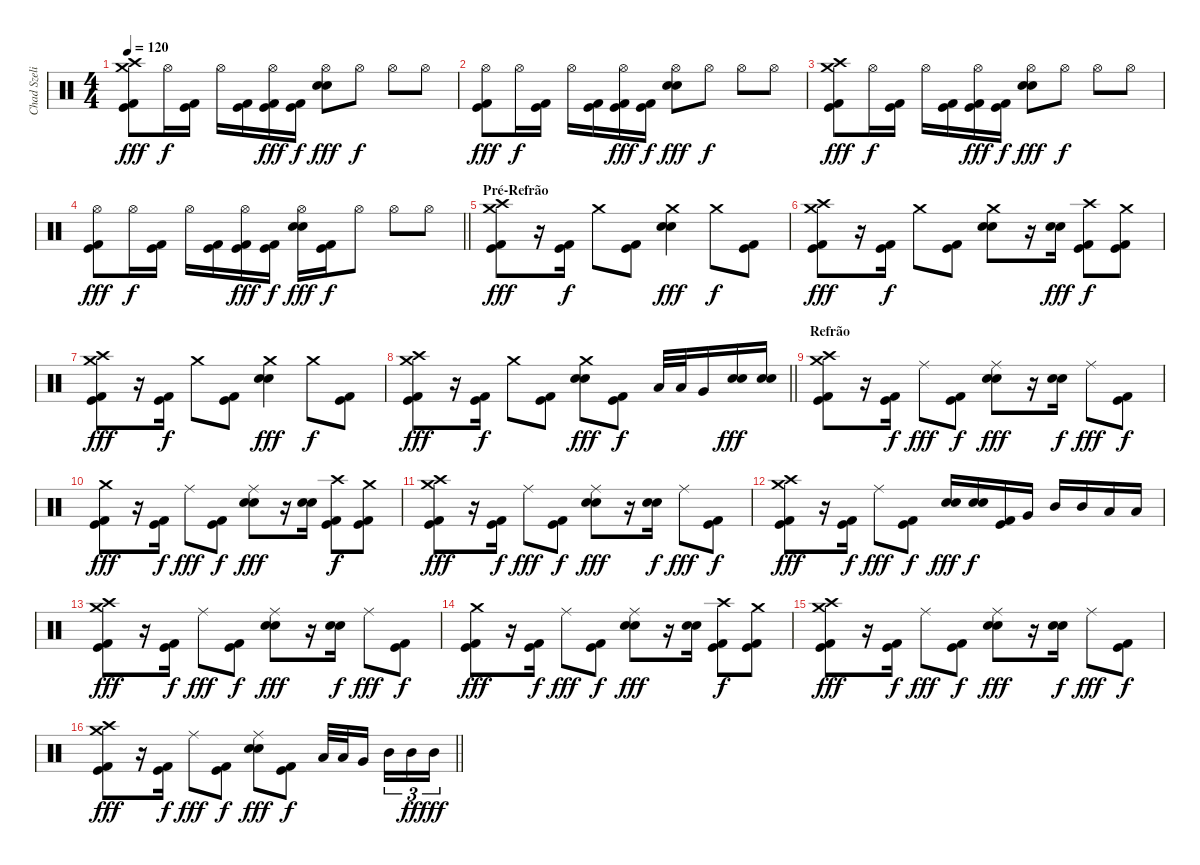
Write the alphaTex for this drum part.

\track ("Chad Szeliga" "Chad Szeli") {instrument percussion}
\staff {score}
\articulation defaults
\ts (4 4)
\tempo 120
\clef neutral
\ks c
("Crash high (hit)" "Kick (hit) 2" "Kick (hit)" "Crash medium (hit)").8{dy fff} "Hi-Hat (open)".16{dy f} ("Kick (hit) 2" "Kick (hit)").16 "Hi-Hat (open)".16 ("Kick (hit) 2" "Kick (hit)").16 ("Kick (hit) 2" "Kick (hit)" "Hi-Hat (open)").16{dy fff} ("Kick (hit) 2" "Kick (hit)").16{dy f} ("Snare (hit) 2" "Snare (hit) 2" "Hi-Hat (open)").8{dy fff} "Hi-Hat (open)".8{dy f} "Hi-Hat (open)".8 "Hi-Hat (open)".8 |
("Kick (hit) 2" "Kick (hit)" "Hi-Hat (open)").8{dy fff} "Hi-Hat (open)".16{dy f} ("Kick (hit) 2" "Kick (hit)").16 "Hi-Hat (open)".16 ("Kick (hit) 2" "Kick (hit)").16 ("Kick (hit) 2" "Kick (hit)" "Hi-Hat (open)").16{dy fff} ("Kick (hit) 2" "Kick (hit)").16{dy f} ("Snare (hit) 2" "Snare (hit) 2" "Hi-Hat (open)").8{dy fff} "Hi-Hat (open)".8{dy f} "Hi-Hat (open)".8 "Hi-Hat (open)".8 |
("Crash high (hit)" "Kick (hit) 2" "Kick (hit)" "Crash medium (hit)").8{dy fff} "Hi-Hat (open)".16{dy f} ("Kick (hit) 2" "Kick (hit)").16 "Hi-Hat (open)".16 ("Kick (hit) 2" "Kick (hit)").16 ("Kick (hit) 2" "Kick (hit)" "Hi-Hat (open)").16{dy fff} ("Kick (hit) 2" "Kick (hit)").16{dy f} ("Snare (hit) 2" "Snare (hit) 2" "Hi-Hat (open)").8{dy fff} "Hi-Hat (open)".8{dy f} "Hi-Hat (open)".8 "Hi-Hat (open)".8 |
\barLineRight lightlight
("Kick (hit) 2" "Kick (hit)" "Hi-Hat (open)").8{dy fff} "Hi-Hat (open)".16{dy f} ("Kick (hit) 2" "Kick (hit)").16 "Hi-Hat (open)".16 ("Kick (hit) 2" "Kick (hit)").16 ("Kick (hit) 2" "Kick (hit)" "Hi-Hat (open)").16{dy fff} ("Kick (hit) 2" "Kick (hit)").16{dy f} ("Snare (hit) 2" "Snare (hit) 2" "Hi-Hat (open)").16{dy fff} ("Kick (hit) 2" "Kick (hit)").16{dy f} "Hi-Hat (open)".8 "Hi-Hat (open)".8 "Hi-Hat (open)".8 |
\section ("" "Pré-Refrão")
("Crash high (hit)" "Kick (hit) 2" "Kick (hit)" "Crash medium (hit)").8{dy fff} r.16 ("Kick (hit) 2" "Kick (hit)").16{dy f beam Down} "Crash medium (hit)".8 ("Kick (hit) 2" "Kick (hit)").8 ("Crash medium (hit)" "Snare (hit) 2" "Snare (hit) 2").4{dy fff} "Crash medium (hit)".8{dy f} ("Kick (hit) 2" "Kick (hit)").8 |
("Crash high (hit)" "Kick (hit) 2" "Kick (hit)" "Crash medium (hit)").8{dy fff} r.16 ("Kick (hit) 2" "Kick (hit)").16{dy f beam Down} "Crash medium (hit)".8 ("Kick (hit) 2" "Kick (hit)").8 ("Crash medium (hit)" "Snare (hit) 2" "Snare (hit) 2").8 r.16 ("Snare (hit) 2" "Snare (hit) 2").16{dy fff} ("Crash high (hit)" "Kick (hit) 2" "Kick (hit)").8{dy f} ("Crash medium (hit)" "Kick (hit) 2" "Kick (hit)").8 |
("Crash high (hit)" "Kick (hit) 2" "Kick (hit)" "Crash medium (hit)").8{dy fff} r.16 ("Kick (hit) 2" "Kick (hit)").16{dy f beam Down} "Crash medium (hit)".8 ("Kick (hit) 2" "Kick (hit)").8 ("Crash medium (hit)" "Snare (hit) 2" "Snare (hit) 2").4{dy fff} "Crash medium (hit)".8{dy f} ("Kick (hit) 2" "Kick (hit)").8 |
\barLineRight lightlight
("Crash high (hit)" "Kick (hit) 2" "Kick (hit)" "Crash medium (hit)").8{dy fff} r.16 ("Kick (hit) 2" "Kick (hit)").16{dy f beam Down} "Crash medium (hit)".8 ("Kick (hit) 2" "Kick (hit)").8 ("Crash medium (hit)" "Snare (hit) 2" "Snare (hit) 2").8{dy fff} ("Kick (hit) 2" "Kick (hit)").8{dy f} "Low Tom (hit)".32 "Low Tom (hit)".32 "Very Low Tom (hit)".16 ("Snare (hit) 2" "Snare (hit) 2").16{dy fff} ("Snare (hit) 2" "Snare (hit) 2").16 |
\section ("" "Refrão")
("Crash high (hit)" "Kick (hit) 2" "Kick (hit)" "Crash medium (hit)").8 r.16 ("Kick (hit) 2" "Kick (hit)").16{dy f beam Down} "Ride (middle)".8{dy fff} ("Kick (hit) 2" "Kick (hit)").8{dy f} ("Ride (middle)" "Snare (hit) 2" "Snare (hit) 2").8{dy fff} r.16 ("Snare (hit) 2" "Snare (hit) 2").16{dy f} "Ride (middle)".8{dy fff} ("Kick (hit) 2" "Kick (hit)").8{dy f} |
("Crash medium (hit)" "Kick (hit) 2" "Kick (hit)").8{dy fff} r.16 ("Kick (hit) 2" "Kick (hit)").16{dy f beam Down} "Ride (middle)".8{dy fff} ("Kick (hit) 2" "Kick (hit)").8{dy f} ("Ride (middle)" "Snare (hit) 2" "Snare (hit) 2").8{dy fff} r.16 ("Snare (hit) 2" "Snare (hit) 2").16 ("Crash high (hit)" "Kick (hit) 2" "Kick (hit)").8{dy f} ("Crash medium (hit)" "Kick (hit) 2" "Kick (hit)").8 |
("Crash high (hit)" "Kick (hit) 2" "Kick (hit)" "Crash medium (hit)").8{dy fff} r.16 ("Kick (hit) 2" "Kick (hit)").16{dy f beam Down} "Ride (middle)".8{dy fff} ("Kick (hit) 2" "Kick (hit)").8{dy f} ("Ride (middle)" "Snare (hit) 2" "Snare (hit) 2").8{dy fff} r.16 ("Snare (hit) 2" "Snare (hit) 2").16{dy f} "Ride (middle)".8{dy fff} ("Kick (hit) 2" "Kick (hit)").8{dy f} |
("Crash high (hit)" "Kick (hit) 2" "Kick (hit)" "Crash medium (hit)").8{dy fff} r.16 ("Kick (hit) 2" "Kick (hit)").16{dy f beam Down} "Ride (middle)".8{dy fff} ("Kick (hit) 2" "Kick (hit)").8{dy f} ("Snare (hit) 2" "Snare (hit) 2").16{dy fff} ("Snare (hit) 2" "Snare (hit) 2").16{dy f} ("Kick (hit) 2" "Kick (hit)").16 "Very Low Tom (hit)".16 "Mid Tom (hit)".16 "Mid Tom (hit)".16 "Low Tom (hit)".16 "Low Tom (hit)".16 |
("Crash high (hit)" "Kick (hit) 2" "Kick (hit)" "Crash medium (hit)").8{dy fff} r.16 ("Kick (hit) 2" "Kick (hit)").16{dy f beam Down} "Ride (middle)".8{dy fff} ("Kick (hit) 2" "Kick (hit)").8{dy f} ("Ride (middle)" "Snare (hit) 2" "Snare (hit) 2").8{dy fff} r.16 ("Snare (hit) 2" "Snare (hit) 2").16{dy f} "Ride (middle)".8{dy fff} ("Kick (hit) 2" "Kick (hit)").8{dy f} |
("Crash medium (hit)" "Kick (hit) 2" "Kick (hit)").8{dy fff} r.16 ("Kick (hit) 2" "Kick (hit)").16{dy f beam Down} "Ride (middle)".8{dy fff} ("Kick (hit) 2" "Kick (hit)").8{dy f} ("Ride (middle)" "Snare (hit) 2" "Snare (hit) 2").8{dy fff} r.16 ("Snare (hit) 2" "Snare (hit) 2").16 ("Crash high (hit)" "Kick (hit) 2" "Kick (hit)").8{dy f} ("Crash medium (hit)" "Kick (hit) 2" "Kick (hit)").8 |
("Crash high (hit)" "Kick (hit) 2" "Kick (hit)" "Crash medium (hit)").8{dy fff} r.16 ("Kick (hit) 2" "Kick (hit)").16{dy f beam Down} "Ride (middle)".8{dy fff} ("Kick (hit) 2" "Kick (hit)").8{dy f} ("Ride (middle)" "Snare (hit) 2" "Snare (hit) 2").8{dy fff} r.16 ("Snare (hit) 2" "Snare (hit) 2").16{dy f} "Ride (middle)".8{dy fff} ("Kick (hit) 2" "Kick (hit)").8{dy f} |
\barLineRight lightlight
("Crash high (hit)" "Kick (hit) 2" "Kick (hit)" "Crash medium (hit)").8{dy fff} r.16 ("Kick (hit) 2" "Kick (hit)").16{dy f beam Down} "Ride (middle)".8{dy fff} ("Kick (hit) 2" "Kick (hit)").8{dy f} ("Ride (middle)" "Snare (hit) 2" "Snare (hit) 2").8{dy fff} ("Kick (hit) 2" "Kick (hit)").8{dy f} "Low Tom (hit)".32 "Low Tom (hit)".32 "Very Low Tom (hit)".16{beam splitsecondary} "Mid Tom (hit)".16{tu (3 2)} "Mid Tom (hit)".16{tu (3 2) dy ff} "Mid Tom (hit)".16{tu (3 2) dy fff}
